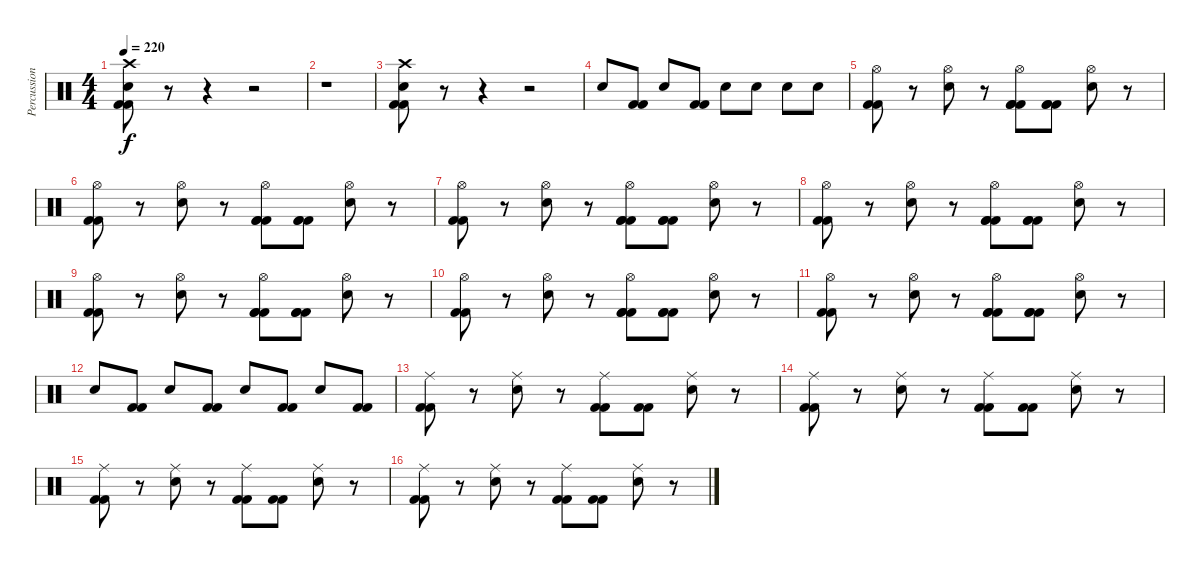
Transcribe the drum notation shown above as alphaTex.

\track ("Percussion" "Percussion") {instrument percussion}
\staff {score}
\articulation defaults
\ts (4 4)
\tempo 220
\clef neutral
\ks c
("Crash high (hit)" "Electric Snare (hit)" "Kick (hit) 2" "Kick (hit) 2").8{dy f} r.8 r.4 r.2 |
r.1 |
("Crash high (hit)" "Electric Snare (hit)" "Kick (hit) 2" "Kick (hit) 2").8 r.8 r.4 r.2 |
"Electric Snare (hit)".8 ("Kick (hit) 2" "Kick (hit) 2").8 "Electric Snare (hit)".8 ("Kick (hit) 2" "Kick (hit) 2").8 "Electric Snare (hit)".8 "Electric Snare (hit)".8 "Electric Snare (hit)".8 "Electric Snare (hit)".8 |
("Hi-Hat (open)" "Kick (hit) 2" "Kick (hit) 2").8 r.8 ("Hi-Hat (open)" "Electric Snare (hit)").8 r.8 ("Hi-Hat (open)" "Kick (hit) 2" "Kick (hit) 2" "Kick (hit) 2").8 ("Kick (hit) 2" "Kick (hit) 2" "Kick (hit) 2").8 ("Hi-Hat (open)" "Electric Snare (hit)").8 r.8 |
("Hi-Hat (open)" "Kick (hit) 2" "Kick (hit) 2").8 r.8 ("Hi-Hat (open)" "Electric Snare (hit)").8 r.8 ("Hi-Hat (open)" "Kick (hit) 2" "Kick (hit) 2" "Kick (hit) 2").8 ("Kick (hit) 2" "Kick (hit) 2" "Kick (hit) 2").8 ("Hi-Hat (open)" "Electric Snare (hit)").8 r.8 |
("Hi-Hat (open)" "Kick (hit) 2" "Kick (hit) 2").8 r.8 ("Hi-Hat (open)" "Electric Snare (hit)").8 r.8 ("Hi-Hat (open)" "Kick (hit) 2" "Kick (hit) 2" "Kick (hit) 2").8 ("Kick (hit) 2" "Kick (hit) 2" "Kick (hit) 2").8 ("Hi-Hat (open)" "Electric Snare (hit)").8 r.8 |
("Hi-Hat (open)" "Kick (hit) 2" "Kick (hit) 2").8 r.8 ("Hi-Hat (open)" "Electric Snare (hit)").8 r.8 ("Hi-Hat (open)" "Kick (hit) 2" "Kick (hit) 2" "Kick (hit) 2").8 ("Kick (hit) 2" "Kick (hit) 2" "Kick (hit) 2").8 ("Hi-Hat (open)" "Electric Snare (hit)").8 r.8 |
("Hi-Hat (open)" "Kick (hit) 2" "Kick (hit) 2").8 r.8 ("Hi-Hat (open)" "Electric Snare (hit)").8 r.8 ("Hi-Hat (open)" "Kick (hit) 2" "Kick (hit) 2" "Kick (hit) 2").8 ("Kick (hit) 2" "Kick (hit) 2" "Kick (hit) 2").8 ("Hi-Hat (open)" "Electric Snare (hit)").8 r.8 |
("Hi-Hat (open)" "Kick (hit) 2" "Kick (hit) 2").8 r.8 ("Hi-Hat (open)" "Electric Snare (hit)").8 r.8 ("Hi-Hat (open)" "Kick (hit) 2" "Kick (hit) 2" "Kick (hit) 2").8 ("Kick (hit) 2" "Kick (hit) 2" "Kick (hit) 2").8 ("Hi-Hat (open)" "Electric Snare (hit)").8 r.8 |
("Hi-Hat (open)" "Kick (hit) 2" "Kick (hit) 2").8 r.8 ("Hi-Hat (open)" "Electric Snare (hit)").8 r.8 ("Hi-Hat (open)" "Kick (hit) 2" "Kick (hit) 2" "Kick (hit) 2").8 ("Kick (hit) 2" "Kick (hit) 2" "Kick (hit) 2").8 ("Hi-Hat (open)" "Electric Snare (hit)").8 r.8 |
"Electric Snare (hit)".8 ("Kick (hit) 2" "Kick (hit) 2").8 "Electric Snare (hit)".8 ("Kick (hit) 2" "Kick (hit) 2").8 "Electric Snare (hit)".8 ("Kick (hit) 2" "Kick (hit) 2").8 "Electric Snare (hit)".8 ("Kick (hit) 2" "Kick (hit) 2").8 |
("Ride (middle)" "Kick (hit) 2" "Kick (hit) 2").8 r.8 ("Ride (middle)" "Electric Snare (hit)").8 r.8 ("Ride (middle)" "Kick (hit) 2" "Kick (hit) 2").8 ("Kick (hit) 2" "Kick (hit) 2").8 ("Ride (middle)" "Electric Snare (hit)").8 r.8 |
("Ride (middle)" "Kick (hit) 2" "Kick (hit) 2").8 r.8 ("Ride (middle)" "Electric Snare (hit)").8 r.8 ("Ride (middle)" "Kick (hit) 2" "Kick (hit) 2").8 ("Kick (hit) 2" "Kick (hit) 2").8 ("Ride (middle)" "Electric Snare (hit)").8 r.8 |
("Ride (middle)" "Kick (hit) 2" "Kick (hit) 2").8 r.8 ("Ride (middle)" "Electric Snare (hit)").8 r.8 ("Ride (middle)" "Kick (hit) 2" "Kick (hit) 2").8 ("Kick (hit) 2" "Kick (hit) 2").8 ("Ride (middle)" "Electric Snare (hit)").8 r.8 |
("Ride (middle)" "Kick (hit) 2" "Kick (hit) 2").8 r.8 ("Ride (middle)" "Electric Snare (hit)").8 r.8 ("Ride (middle)" "Kick (hit) 2" "Kick (hit) 2").8 ("Kick (hit) 2" "Kick (hit) 2").8 ("Ride (middle)" "Electric Snare (hit)").8 r.8
